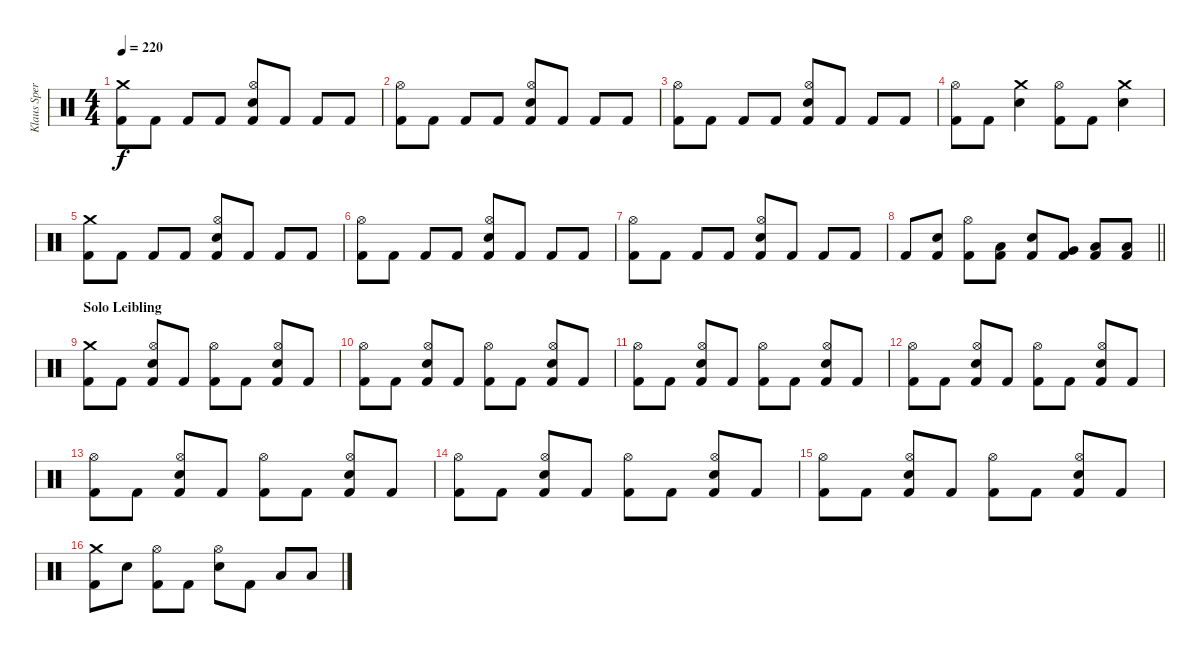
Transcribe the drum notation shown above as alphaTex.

\track ("Klaus Sperling" "Klaus Sper") {instrument percussion}
\staff {score}
\articulation defaults
\ts (4 4)
\tempo 220
\clef neutral
\ks c
("Crash medium (hit)" "Kick (hit) 2").8{dy f} "Kick (hit) 2".8 "Kick (hit) 2".8 "Kick (hit) 2".8 ("Hi-Hat (open)" "Electric Snare (hit)" "Kick (hit) 2").8 "Kick (hit) 2".8 "Kick (hit) 2".8 "Kick (hit) 2".8 |
("Hi-Hat (open)" "Kick (hit) 2").8 "Kick (hit) 2".8 "Kick (hit) 2".8 "Kick (hit) 2".8 ("Hi-Hat (open)" "Electric Snare (hit)" "Kick (hit) 2").8 "Kick (hit) 2".8 "Kick (hit) 2".8 "Kick (hit) 2".8 |
("Hi-Hat (open)" "Kick (hit) 2").8 "Kick (hit) 2".8 "Kick (hit) 2".8 "Kick (hit) 2".8 ("Hi-Hat (open)" "Electric Snare (hit)" "Kick (hit) 2").8 "Kick (hit) 2".8 "Kick (hit) 2".8 "Kick (hit) 2".8 |
("Hi-Hat (open)" "Kick (hit) 2").8 "Kick (hit) 2".8 ("Crash medium (hit)" "Electric Snare (hit)").4 ("Hi-Hat (open)" "Kick (hit) 2").8 "Kick (hit) 2".8 ("Crash medium (hit)" "Electric Snare (hit)").4 |
("Crash medium (hit)" "Kick (hit) 2").8 "Kick (hit) 2".8 "Kick (hit) 2".8 "Kick (hit) 2".8 ("Hi-Hat (open)" "Electric Snare (hit)" "Kick (hit) 2").8 "Kick (hit) 2".8 "Kick (hit) 2".8 "Kick (hit) 2".8 |
("Hi-Hat (open)" "Kick (hit) 2").8 "Kick (hit) 2".8 "Kick (hit) 2".8 "Kick (hit) 2".8 ("Hi-Hat (open)" "Electric Snare (hit)" "Kick (hit) 2").8 "Kick (hit) 2".8 "Kick (hit) 2".8 "Kick (hit) 2".8 |
("Hi-Hat (open)" "Kick (hit) 2").8 "Kick (hit) 2".8 "Kick (hit) 2".8 "Kick (hit) 2".8 ("Hi-Hat (open)" "Electric Snare (hit)" "Kick (hit) 2").8 "Kick (hit) 2".8 "Kick (hit) 2".8 "Kick (hit) 2".8 |
\barLineRight lightlight "Kick (hit) 2".8
("Electric Snare (hit)" "Kick (hit) 2").8 ("Hi-Hat (open)" "Kick (hit) 2").8 ("Low Floor Tom (hit)" "Kick (hit) 2").8 ("Electric Snare (hit)" "Kick (hit) 2").8 ("Very Low Tom (hit)" "Kick (hit) 2").8 ("Low Floor Tom (hit)" "Kick (hit) 2").8 ("Low Floor Tom (hit)" "Kick (hit) 2").8 |
\section ("" "Solo Leibling")
("Crash medium (hit)" "Kick (hit) 2").8 "Kick (hit) 2".8 ("Hi-Hat (open)" "Electric Snare (hit)" "Kick (hit) 2").8 "Kick (hit) 2".8 ("Hi-Hat (open)" "Kick (hit) 2").8 "Kick (hit) 2".8 ("Hi-Hat (open)" "Electric Snare (hit)" "Kick (hit) 2").8 "Kick (hit) 2".8 |
("Hi-Hat (open)" "Kick (hit) 2").8 "Kick (hit) 2".8 ("Hi-Hat (open)" "Electric Snare (hit)" "Kick (hit) 2").8 "Kick (hit) 2".8 ("Hi-Hat (open)" "Kick (hit) 2").8 "Kick (hit) 2".8 ("Hi-Hat (open)" "Electric Snare (hit)" "Kick (hit) 2").8 "Kick (hit) 2".8 |
("Hi-Hat (open)" "Kick (hit) 2").8 "Kick (hit) 2".8 ("Hi-Hat (open)" "Electric Snare (hit)" "Kick (hit) 2").8 "Kick (hit) 2".8 ("Hi-Hat (open)" "Kick (hit) 2").8 "Kick (hit) 2".8 ("Hi-Hat (open)" "Electric Snare (hit)" "Kick (hit) 2").8 "Kick (hit) 2".8 |
("Hi-Hat (open)" "Kick (hit) 2").8 "Kick (hit) 2".8 ("Hi-Hat (open)" "Electric Snare (hit)" "Kick (hit) 2").8 "Kick (hit) 2".8 ("Hi-Hat (open)" "Kick (hit) 2").8 "Kick (hit) 2".8 ("Hi-Hat (open)" "Electric Snare (hit)" "Kick (hit) 2").8 "Kick (hit) 2".8 |
("Hi-Hat (open)" "Kick (hit) 2").8 "Kick (hit) 2".8 ("Hi-Hat (open)" "Electric Snare (hit)" "Kick (hit) 2").8 "Kick (hit) 2".8 ("Hi-Hat (open)" "Kick (hit) 2").8 "Kick (hit) 2".8 ("Hi-Hat (open)" "Electric Snare (hit)" "Kick (hit) 2").8 "Kick (hit) 2".8 |
("Hi-Hat (open)" "Kick (hit) 2").8 "Kick (hit) 2".8 ("Hi-Hat (open)" "Electric Snare (hit)" "Kick (hit) 2").8 "Kick (hit) 2".8 ("Hi-Hat (open)" "Kick (hit) 2").8 "Kick (hit) 2".8 ("Hi-Hat (open)" "Electric Snare (hit)" "Kick (hit) 2").8 "Kick (hit) 2".8 |
("Hi-Hat (open)" "Kick (hit) 2").8 "Kick (hit) 2".8 ("Hi-Hat (open)" "Electric Snare (hit)" "Kick (hit) 2").8 "Kick (hit) 2".8 ("Hi-Hat (open)" "Kick (hit) 2").8 "Kick (hit) 2".8 ("Hi-Hat (open)" "Electric Snare (hit)" "Kick (hit) 2").8 "Kick (hit) 2".8 |
("Crash medium (hit)" "Kick (hit) 2").8 "Electric Snare (hit)".8 ("Hi-Hat (open)" "Kick (hit) 2").8 "Kick (hit) 2".8 ("Hi-Hat (open)" "Electric Snare (hit)").8 "Kick (hit) 2".8 "Low Floor Tom (hit)".8 "Low Floor Tom (hit)".8
